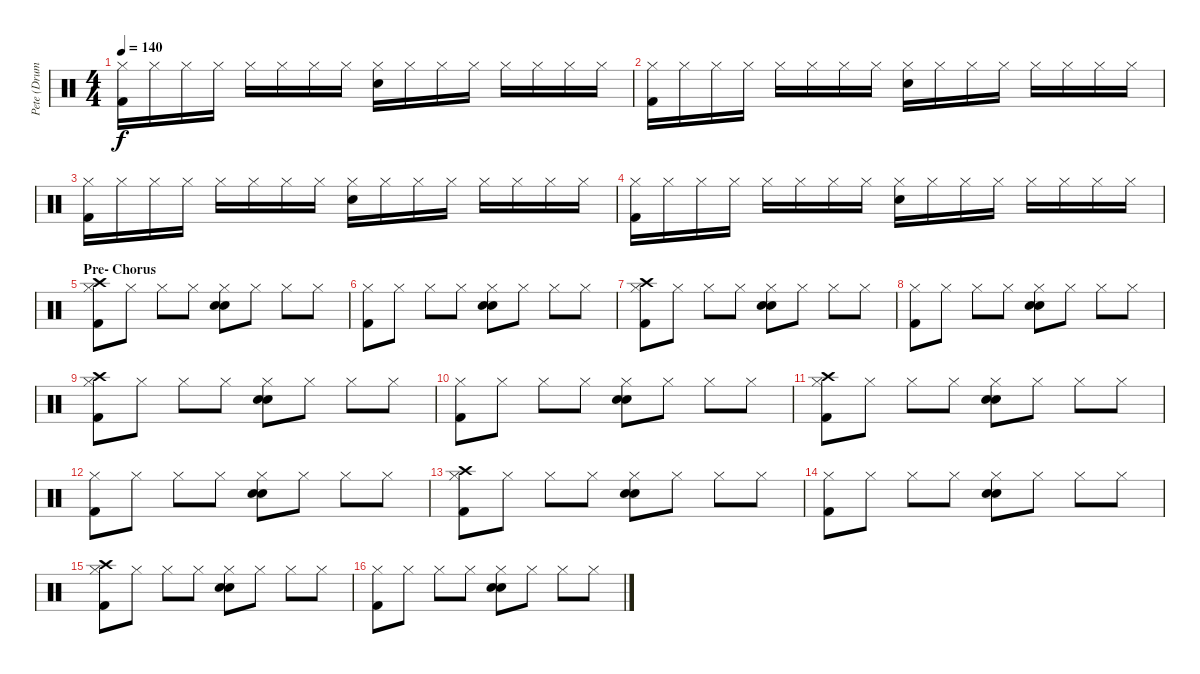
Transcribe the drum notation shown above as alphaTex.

\track ("Pete (Drums)" "Pete (Drum") {instrument percussion}
\staff {score}
\articulation defaults
\ts (4 4)
\tempo 140
\clef neutral
\ks c
("Hi-Hat (closed)" "Kick (hit) 2").16{dy f} "Hi-Hat (closed)".16 "Hi-Hat (closed)".16 "Hi-Hat (closed)".16 "Hi-Hat (closed)".16 "Hi-Hat (closed)".16 "Hi-Hat (closed)".16 "Hi-Hat (closed)".16 ("Hi-Hat (closed)" "Snare (hit) 2").16 "Hi-Hat (closed)".16 "Hi-Hat (closed)".16 "Hi-Hat (closed)".16 "Hi-Hat (closed)".16 "Hi-Hat (closed)".16 "Hi-Hat (closed)".16 "Hi-Hat (closed)".16 |
("Hi-Hat (closed)" "Kick (hit) 2").16 "Hi-Hat (closed)".16 "Hi-Hat (closed)".16 "Hi-Hat (closed)".16 "Hi-Hat (closed)".16 "Hi-Hat (closed)".16 "Hi-Hat (closed)".16 "Hi-Hat (closed)".16 ("Hi-Hat (closed)" "Snare (hit) 2").16 "Hi-Hat (closed)".16 "Hi-Hat (closed)".16 "Hi-Hat (closed)".16 "Hi-Hat (closed)".16 "Hi-Hat (closed)".16 "Hi-Hat (closed)".16 "Hi-Hat (closed)".16 |
("Hi-Hat (closed)" "Kick (hit) 2").16 "Hi-Hat (closed)".16 "Hi-Hat (closed)".16 "Hi-Hat (closed)".16 "Hi-Hat (closed)".16 "Hi-Hat (closed)".16 "Hi-Hat (closed)".16 "Hi-Hat (closed)".16 ("Hi-Hat (closed)" "Snare (hit) 2").16 "Hi-Hat (closed)".16 "Hi-Hat (closed)".16 "Hi-Hat (closed)".16 "Hi-Hat (closed)".16 "Hi-Hat (closed)".16 "Hi-Hat (closed)".16 "Hi-Hat (closed)".16 |
("Hi-Hat (closed)" "Kick (hit) 2").16 "Hi-Hat (closed)".16 "Hi-Hat (closed)".16 "Hi-Hat (closed)".16 "Hi-Hat (closed)".16 "Hi-Hat (closed)".16 "Hi-Hat (closed)".16 "Hi-Hat (closed)".16 ("Hi-Hat (closed)" "Snare (hit) 2").16 "Hi-Hat (closed)".16 "Hi-Hat (closed)".16 "Hi-Hat (closed)".16 "Hi-Hat (closed)".16 "Hi-Hat (closed)".16 "Hi-Hat (closed)".16 "Hi-Hat (closed)".16 |
\section ("" "Pre- Chorus")
("Hi-Hat (closed)" "Kick (hit) 2" "Crash high (hit)").8 "Hi-Hat (closed)".8 "Hi-Hat (closed)".8 "Hi-Hat (closed)".8 ("Hi-Hat (closed)" "Snare (hit) 2" "Snare (hit) 2").8 "Hi-Hat (closed)".8 "Hi-Hat (closed)".8 "Hi-Hat (closed)".8 |
("Hi-Hat (closed)" "Kick (hit) 2").8 "Hi-Hat (closed)".8 "Hi-Hat (closed)".8 "Hi-Hat (closed)".8 ("Hi-Hat (closed)" "Snare (hit) 2" "Snare (hit) 2").8 "Hi-Hat (closed)".8 "Hi-Hat (closed)".8 "Hi-Hat (closed)".8 |
("Hi-Hat (closed)" "Kick (hit) 2" "Crash high (hit)").8 "Hi-Hat (closed)".8 "Hi-Hat (closed)".8 "Hi-Hat (closed)".8 ("Hi-Hat (closed)" "Snare (hit) 2" "Snare (hit) 2").8 "Hi-Hat (closed)".8 "Hi-Hat (closed)".8 "Hi-Hat (closed)".8 |
("Hi-Hat (closed)" "Kick (hit) 2").8 "Hi-Hat (closed)".8 "Hi-Hat (closed)".8 "Hi-Hat (closed)".8 ("Hi-Hat (closed)" "Snare (hit) 2" "Snare (hit) 2").8 "Hi-Hat (closed)".8 "Hi-Hat (closed)".8 "Hi-Hat (closed)".8 |
("Hi-Hat (closed)" "Kick (hit) 2" "Crash high (hit)").8 "Hi-Hat (closed)".8 "Hi-Hat (closed)".8 "Hi-Hat (closed)".8 ("Hi-Hat (closed)" "Snare (hit) 2" "Snare (hit) 2").8 "Hi-Hat (closed)".8 "Hi-Hat (closed)".8 "Hi-Hat (closed)".8 |
("Hi-Hat (closed)" "Kick (hit) 2").8 "Hi-Hat (closed)".8 "Hi-Hat (closed)".8 "Hi-Hat (closed)".8 ("Hi-Hat (closed)" "Snare (hit) 2" "Snare (hit) 2").8 "Hi-Hat (closed)".8 "Hi-Hat (closed)".8 "Hi-Hat (closed)".8 |
("Hi-Hat (closed)" "Kick (hit) 2" "Crash high (hit)").8 "Hi-Hat (closed)".8 "Hi-Hat (closed)".8 "Hi-Hat (closed)".8 ("Hi-Hat (closed)" "Snare (hit) 2" "Snare (hit) 2").8 "Hi-Hat (closed)".8 "Hi-Hat (closed)".8 "Hi-Hat (closed)".8 |
("Hi-Hat (closed)" "Kick (hit) 2").8 "Hi-Hat (closed)".8 "Hi-Hat (closed)".8 "Hi-Hat (closed)".8 ("Hi-Hat (closed)" "Snare (hit) 2" "Snare (hit) 2").8 "Hi-Hat (closed)".8 "Hi-Hat (closed)".8 "Hi-Hat (closed)".8 |
("Hi-Hat (closed)" "Kick (hit) 2" "Crash high (hit)").8 "Hi-Hat (closed)".8 "Hi-Hat (closed)".8 "Hi-Hat (closed)".8 ("Hi-Hat (closed)" "Snare (hit) 2" "Snare (hit) 2").8 "Hi-Hat (closed)".8 "Hi-Hat (closed)".8 "Hi-Hat (closed)".8 |
("Hi-Hat (closed)" "Kick (hit) 2").8 "Hi-Hat (closed)".8 "Hi-Hat (closed)".8 "Hi-Hat (closed)".8 ("Hi-Hat (closed)" "Snare (hit) 2" "Snare (hit) 2").8 "Hi-Hat (closed)".8 "Hi-Hat (closed)".8 "Hi-Hat (closed)".8 |
("Hi-Hat (closed)" "Kick (hit) 2" "Crash high (hit)").8 "Hi-Hat (closed)".8 "Hi-Hat (closed)".8 "Hi-Hat (closed)".8 ("Hi-Hat (closed)" "Snare (hit) 2" "Snare (hit) 2").8 "Hi-Hat (closed)".8 "Hi-Hat (closed)".8 "Hi-Hat (closed)".8 |
("Hi-Hat (closed)" "Kick (hit) 2").8 "Hi-Hat (closed)".8 "Hi-Hat (closed)".8 "Hi-Hat (closed)".8 ("Hi-Hat (closed)" "Snare (hit) 2" "Snare (hit) 2").8 "Hi-Hat (closed)".8 "Hi-Hat (closed)".8 "Hi-Hat (closed)".8
